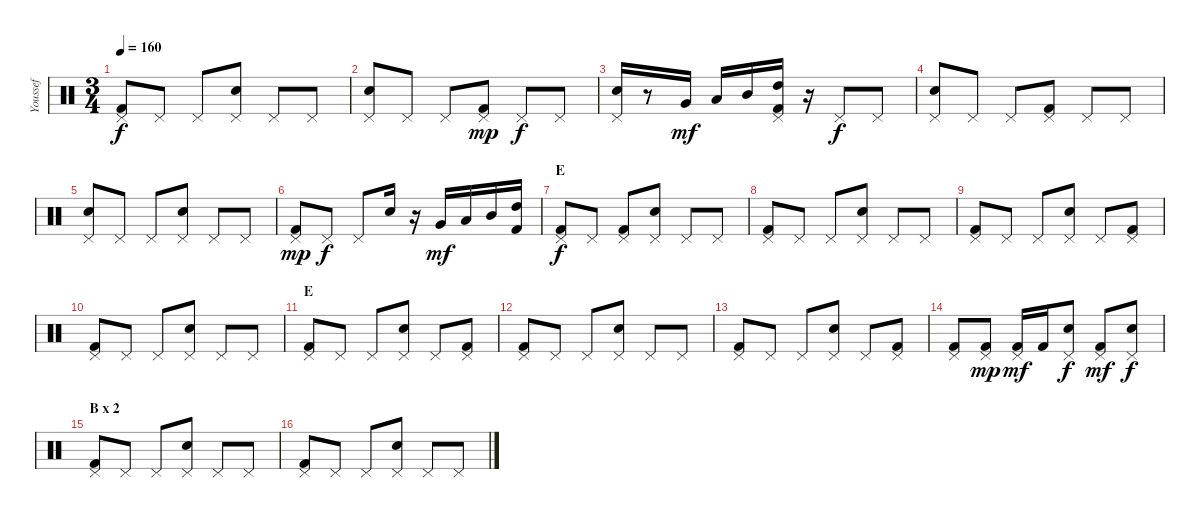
\track ("Youssef" "Youssef") {instrument percussion}
\staff {score}
\articulation defaults
\ts (3 4)
\tempo 160
\clef neutral
\ks c
("Kick (hit) 2" "Pedal Hi-Hat (hit)").8{dy f} "Pedal Hi-Hat (hit)".8 "Pedal Hi-Hat (hit)".8 ("Electric Snare (hit)" "Pedal Hi-Hat (hit)").8 "Pedal Hi-Hat (hit)".8 "Pedal Hi-Hat (hit)".8 |
("Electric Snare (hit)" "Pedal Hi-Hat (hit)").8 "Pedal Hi-Hat (hit)".8 "Pedal Hi-Hat (hit)".8 ("Kick (hit) 2" "Pedal Hi-Hat (hit)").8{dy mp} "Pedal Hi-Hat (hit)".8{dy f} "Pedal Hi-Hat (hit)".8 |
("Electric Snare (hit)" "Pedal Hi-Hat (hit)").16 r.8 "Very Low Tom (hit)".16{dy mf} "Low Tom (hit)".16 "Mid Tom (hit)".16 ("Kick (hit) 2" "High Tom (hit)" "Pedal Hi-Hat (hit)").16 r.16 "Pedal Hi-Hat (hit)".8{dy f} "Pedal Hi-Hat (hit)".8 |
("Electric Snare (hit)" "Pedal Hi-Hat (hit)").8 "Pedal Hi-Hat (hit)".8 "Pedal Hi-Hat (hit)".8 ("Kick (hit) 2" "Pedal Hi-Hat (hit)").8 "Pedal Hi-Hat (hit)".8 "Pedal Hi-Hat (hit)".8 |
("Electric Snare (hit)" "Pedal Hi-Hat (hit)").8 "Pedal Hi-Hat (hit)".8 "Pedal Hi-Hat (hit)".8 ("Electric Snare (hit)" "Pedal Hi-Hat (hit)").8 "Pedal Hi-Hat (hit)".8 "Pedal Hi-Hat (hit)".8 |
("Kick (hit) 2" "Pedal Hi-Hat (hit)").8{dy mp} "Pedal Hi-Hat (hit)".8{dy f} "Pedal Hi-Hat (hit)".8 "Electric Snare (hit)".16 r.16 "Very Low Tom (hit)".16{dy mf} "Low Tom (hit)".16 "Mid Tom (hit)".16 ("Kick (hit) 2" "High Tom (hit)").16 |
\section ("" "E")
("Kick (hit) 2" "Pedal Hi-Hat (hit)").8{dy f} "Pedal Hi-Hat (hit)".8 ("Kick (hit) 2" "Pedal Hi-Hat (hit)").8 ("Electric Snare (hit)" "Pedal Hi-Hat (hit)").8 "Pedal Hi-Hat (hit)".8 "Pedal Hi-Hat (hit)".8 |
("Kick (hit) 2" "Pedal Hi-Hat (hit)").8 "Pedal Hi-Hat (hit)".8 "Pedal Hi-Hat (hit)".8 ("Electric Snare (hit)" "Pedal Hi-Hat (hit)").8 "Pedal Hi-Hat (hit)".8 "Pedal Hi-Hat (hit)".8 |
("Kick (hit) 2" "Pedal Hi-Hat (hit)").8 "Pedal Hi-Hat (hit)".8 "Pedal Hi-Hat (hit)".8 ("Electric Snare (hit)" "Pedal Hi-Hat (hit)").8 "Pedal Hi-Hat (hit)".8 ("Kick (hit) 2" "Pedal Hi-Hat (hit)").8 |
("Kick (hit) 2" "Pedal Hi-Hat (hit)").8 "Pedal Hi-Hat (hit)".8 "Pedal Hi-Hat (hit)".8 ("Electric Snare (hit)" "Pedal Hi-Hat (hit)").8 "Pedal Hi-Hat (hit)".8 "Pedal Hi-Hat (hit)".8 |
\section ("" "E")
("Kick (hit) 2" "Pedal Hi-Hat (hit)").8 "Pedal Hi-Hat (hit)".8 "Pedal Hi-Hat (hit)".8 ("Electric Snare (hit)" "Pedal Hi-Hat (hit)").8 "Pedal Hi-Hat (hit)".8 ("Kick (hit) 2" "Pedal Hi-Hat (hit)").8 |
("Kick (hit) 2" "Pedal Hi-Hat (hit)").8 "Pedal Hi-Hat (hit)".8 "Pedal Hi-Hat (hit)".8 ("Electric Snare (hit)" "Pedal Hi-Hat (hit)").8 "Pedal Hi-Hat (hit)".8 "Pedal Hi-Hat (hit)".8 |
("Kick (hit) 2" "Pedal Hi-Hat (hit)").8 "Pedal Hi-Hat (hit)".8 "Pedal Hi-Hat (hit)".8 ("Electric Snare (hit)" "Pedal Hi-Hat (hit)").8 "Pedal Hi-Hat (hit)".8 ("Kick (hit) 2" "Pedal Hi-Hat (hit)").8 |
("Kick (hit) 2" "Pedal Hi-Hat (hit)").8 ("Kick (hit) 2" "Pedal Hi-Hat (hit)").8{dy mp} ("Kick (hit) 2" "Pedal Hi-Hat (hit)").16{dy mf} "Kick (hit) 2".16 ("Electric Snare (hit)" "Pedal Hi-Hat (hit)").8{dy f} ("Kick (hit) 2" "Pedal Hi-Hat (hit)").8{dy mf} ("Electric Snare (hit)" "Pedal Hi-Hat (hit)").8{dy f} |
\section ("" "B x 2")
("Kick (hit) 2" "Pedal Hi-Hat (hit)").8 "Pedal Hi-Hat (hit)".8 "Pedal Hi-Hat (hit)".8 ("Electric Snare (hit)" "Pedal Hi-Hat (hit)").8 "Pedal Hi-Hat (hit)".8 "Pedal Hi-Hat (hit)".8 |
("Kick (hit) 2" "Pedal Hi-Hat (hit)").8 "Pedal Hi-Hat (hit)".8 "Pedal Hi-Hat (hit)".8 ("Electric Snare (hit)" "Pedal Hi-Hat (hit)").8 "Pedal Hi-Hat (hit)".8 "Pedal Hi-Hat (hit)".8
